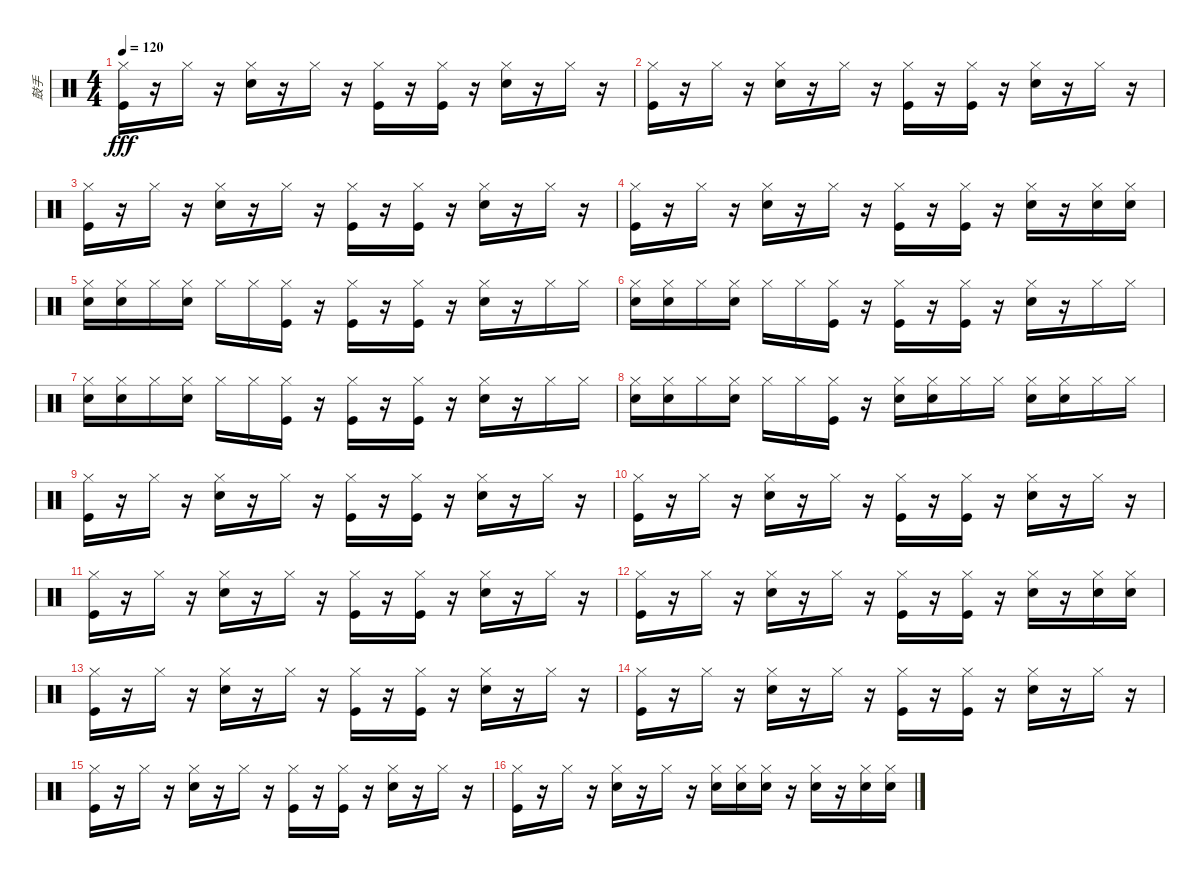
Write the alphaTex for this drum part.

\track ("鼓手" "鼓手") {instrument percussion}
\staff {score}
\articulation defaults
\ts (4 4)
\tempo 120
\clef neutral
\ks c
("Kick (hit)" "Hi-Hat (closed)").16{dy fff} r.16 "Hi-Hat (closed)".16 r.16 ("Snare (hit) 2" "Hi-Hat (closed)").16 r.16 "Hi-Hat (closed)".16 r.16 ("Kick (hit)" "Hi-Hat (closed)").16 r.16 ("Kick (hit)" "Hi-Hat (closed)").16 r.16 ("Snare (hit) 2" "Hi-Hat (closed)").16 r.16 "Hi-Hat (closed)".16 r.16 |
("Kick (hit)" "Hi-Hat (closed)").16 r.16 "Hi-Hat (closed)".16 r.16 ("Snare (hit) 2" "Hi-Hat (closed)").16 r.16 "Hi-Hat (closed)".16 r.16 ("Kick (hit)" "Hi-Hat (closed)").16 r.16 ("Kick (hit)" "Hi-Hat (closed)").16 r.16 ("Snare (hit) 2" "Hi-Hat (closed)").16 r.16 "Hi-Hat (closed)".16 r.16 |
("Kick (hit)" "Hi-Hat (closed)").16 r.16 "Hi-Hat (closed)".16 r.16 ("Snare (hit) 2" "Hi-Hat (closed)").16 r.16 "Hi-Hat (closed)".16 r.16 ("Kick (hit)" "Hi-Hat (closed)").16 r.16 ("Kick (hit)" "Hi-Hat (closed)").16 r.16 ("Snare (hit) 2" "Hi-Hat (closed)").16 r.16 "Hi-Hat (closed)".16 r.16 |
("Kick (hit)" "Hi-Hat (closed)").16 r.16 "Hi-Hat (closed)".16 r.16 ("Snare (hit) 2" "Hi-Hat (closed)").16 r.16 "Hi-Hat (closed)".16 r.16 ("Kick (hit)" "Hi-Hat (closed)").16 r.16 ("Kick (hit)" "Hi-Hat (closed)").16 r.16 ("Snare (hit) 2" "Hi-Hat (closed)").16 r.16 ("Snare (hit) 2" "Hi-Hat (closed)").16 ("Snare (hit) 2" "Hi-Hat (closed)").16 |
("Snare (hit) 2" "Hi-Hat (closed)").16 ("Snare (hit) 2" "Hi-Hat (closed)").16 "Hi-Hat (closed)".16 ("Snare (hit) 2" "Hi-Hat (closed)").16 "Hi-Hat (closed)".16 "Hi-Hat (closed)".16 ("Kick (hit)" "Hi-Hat (closed)").16 r.16 ("Kick (hit)" "Hi-Hat (closed)").16 r.16 ("Kick (hit)" "Hi-Hat (closed)").16 r.16 ("Snare (hit) 2" "Hi-Hat (closed)").16 r.16 "Hi-Hat (closed)".16 "Hi-Hat (closed)".16 |
("Snare (hit) 2" "Hi-Hat (closed)").16 ("Snare (hit) 2" "Hi-Hat (closed)").16 "Hi-Hat (closed)".16 ("Snare (hit) 2" "Hi-Hat (closed)").16 "Hi-Hat (closed)".16 "Hi-Hat (closed)".16 ("Kick (hit)" "Hi-Hat (closed)").16 r.16 ("Kick (hit)" "Hi-Hat (closed)").16 r.16 ("Kick (hit)" "Hi-Hat (closed)").16 r.16 ("Snare (hit) 2" "Hi-Hat (closed)").16 r.16 "Hi-Hat (closed)".16 "Hi-Hat (closed)".16 |
("Snare (hit) 2" "Hi-Hat (closed)").16 ("Snare (hit) 2" "Hi-Hat (closed)").16 "Hi-Hat (closed)".16 ("Snare (hit) 2" "Hi-Hat (closed)").16 "Hi-Hat (closed)".16 "Hi-Hat (closed)".16 ("Kick (hit)" "Hi-Hat (closed)").16 r.16 ("Kick (hit)" "Hi-Hat (closed)").16 r.16 ("Kick (hit)" "Hi-Hat (closed)").16 r.16 ("Snare (hit) 2" "Hi-Hat (closed)").16 r.16 "Hi-Hat (closed)".16 "Hi-Hat (closed)".16 |
("Snare (hit) 2" "Hi-Hat (closed)").16 ("Snare (hit) 2" "Hi-Hat (closed)").16 "Hi-Hat (closed)".16 ("Snare (hit) 2" "Hi-Hat (closed)").16 "Hi-Hat (closed)".16 "Hi-Hat (closed)".16 ("Kick (hit)" "Hi-Hat (closed)").16 r.16 ("Snare (hit) 2" "Hi-Hat (closed)").16 ("Snare (hit) 2" "Hi-Hat (closed)").16 "Hi-Hat (closed)".16 "Hi-Hat (closed)".16 ("Snare (hit) 2" "Hi-Hat (closed)").16 ("Snare (hit) 2" "Hi-Hat (closed)").16 "Hi-Hat (closed)".16 "Hi-Hat (closed)".16 |
("Kick (hit)" "Hi-Hat (closed)").16 r.16 "Hi-Hat (closed)".16 r.16 ("Snare (hit) 2" "Hi-Hat (closed)").16 r.16 "Hi-Hat (closed)".16 r.16 ("Kick (hit)" "Hi-Hat (closed)").16 r.16 ("Kick (hit)" "Hi-Hat (closed)").16 r.16 ("Snare (hit) 2" "Hi-Hat (closed)").16 r.16 "Hi-Hat (closed)".16 r.16 |
("Kick (hit)" "Hi-Hat (closed)").16 r.16 "Hi-Hat (closed)".16 r.16 ("Snare (hit) 2" "Hi-Hat (closed)").16 r.16 "Hi-Hat (closed)".16 r.16 ("Kick (hit)" "Hi-Hat (closed)").16 r.16 ("Kick (hit)" "Hi-Hat (closed)").16 r.16 ("Snare (hit) 2" "Hi-Hat (closed)").16 r.16 "Hi-Hat (closed)".16 r.16 |
("Kick (hit)" "Hi-Hat (closed)").16 r.16 "Hi-Hat (closed)".16 r.16 ("Snare (hit) 2" "Hi-Hat (closed)").16 r.16 "Hi-Hat (closed)".16 r.16 ("Kick (hit)" "Hi-Hat (closed)").16 r.16 ("Kick (hit)" "Hi-Hat (closed)").16 r.16 ("Snare (hit) 2" "Hi-Hat (closed)").16 r.16 "Hi-Hat (closed)".16 r.16 |
("Kick (hit)" "Hi-Hat (closed)").16 r.16 "Hi-Hat (closed)".16 r.16 ("Snare (hit) 2" "Hi-Hat (closed)").16 r.16 "Hi-Hat (closed)".16 r.16 ("Kick (hit)" "Hi-Hat (closed)").16 r.16 ("Kick (hit)" "Hi-Hat (closed)").16 r.16 ("Snare (hit) 2" "Hi-Hat (closed)").16 r.16 ("Snare (hit) 2" "Hi-Hat (closed)").16 ("Snare (hit) 2" "Hi-Hat (closed)").16 |
("Kick (hit)" "Hi-Hat (closed)").16 r.16 "Hi-Hat (closed)".16 r.16 ("Snare (hit) 2" "Hi-Hat (closed)").16 r.16 "Hi-Hat (closed)".16 r.16 ("Kick (hit)" "Hi-Hat (closed)").16 r.16 ("Kick (hit)" "Hi-Hat (closed)").16 r.16 ("Snare (hit) 2" "Hi-Hat (closed)").16 r.16 "Hi-Hat (closed)".16 r.16 |
("Kick (hit)" "Hi-Hat (closed)").16 r.16 "Hi-Hat (closed)".16 r.16 ("Snare (hit) 2" "Hi-Hat (closed)").16 r.16 "Hi-Hat (closed)".16 r.16 ("Kick (hit)" "Hi-Hat (closed)").16 r.16 ("Kick (hit)" "Hi-Hat (closed)").16 r.16 ("Snare (hit) 2" "Hi-Hat (closed)").16 r.16 "Hi-Hat (closed)".16 r.16 |
("Kick (hit)" "Hi-Hat (closed)").16 r.16 "Hi-Hat (closed)".16 r.16 ("Snare (hit) 2" "Hi-Hat (closed)").16 r.16 "Hi-Hat (closed)".16 r.16 ("Kick (hit)" "Hi-Hat (closed)").16 r.16 ("Kick (hit)" "Hi-Hat (closed)").16 r.16 ("Snare (hit) 2" "Hi-Hat (closed)").16 r.16 "Hi-Hat (closed)".16 r.16 |
("Kick (hit)" "Hi-Hat (closed)").16 r.16 "Hi-Hat (closed)".16 r.16 ("Snare (hit) 2" "Hi-Hat (closed)").16 r.16 "Hi-Hat (closed)".16 r.16 ("Snare (hit) 2" "Hi-Hat (closed)").16 ("Snare (hit) 2" "Hi-Hat (closed)").16 ("Snare (hit) 2" "Hi-Hat (closed)").16 r.16 ("Snare (hit) 2" "Hi-Hat (closed)").16 r.16 ("Snare (hit) 2" "Hi-Hat (closed)").16 ("Snare (hit) 2" "Hi-Hat (closed)").16
